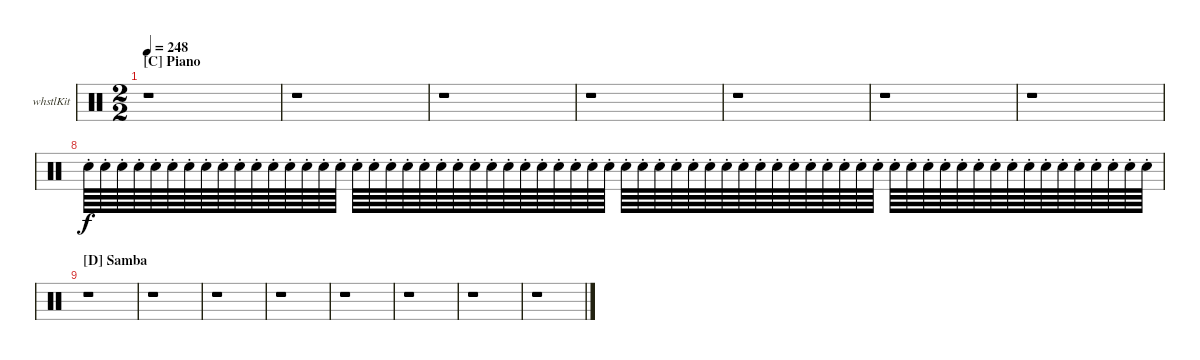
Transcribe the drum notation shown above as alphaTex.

\bracketExtendMode nobrackets
\firstSystemTrackNameOrientation horizontal
\otherSystemsTrackNameOrientation horizontal
\defaultBarNumberDisplay FirstOfSystem
\track ("Whistle" "whstlKit") {instrument percussion}
\staff {score}
\articulation defaults
\ts (2 2)
\beaming (8 2 2 2 2)
\section ("C" "Piano")
\tempo 248
\clef neutral
\ks c
r.1{dy f} |
r.1 |
r.1 |
r.1 |
r.1 |
r.1 |
r.1 |
"Snare (hit) 2"{st}.64 "Snare (hit) 2"{st}.64 "Snare (hit) 2"{st}.64 "Snare (hit) 2"{st}.64 "Snare (hit) 2"{st}.64 "Snare (hit) 2"{st}.64 "Snare (hit) 2"{st}.64 "Snare (hit) 2"{st}.64 "Snare (hit) 2"{st}.64 "Snare (hit) 2"{st}.64 "Snare (hit) 2"{st}.64 "Snare (hit) 2"{st}.64 "Snare (hit) 2"{st}.64 "Snare (hit) 2"{st}.64 "Snare (hit) 2"{st}.64 "Snare (hit) 2"{st}.64 "Snare (hit) 2"{st}.64 "Snare (hit) 2"{st}.64 "Snare (hit) 2"{st}.64 "Snare (hit) 2"{st}.64 "Snare (hit) 2"{st}.64 "Snare (hit) 2"{st}.64 "Snare (hit) 2"{st}.64 "Snare (hit) 2"{st}.64 "Snare (hit) 2"{st}.64 "Snare (hit) 2"{st}.64 "Snare (hit) 2"{st}.64 "Snare (hit) 2"{st}.64 "Snare (hit) 2"{st}.64 "Snare (hit) 2"{st}.64 "Snare (hit) 2"{st}.64 "Snare (hit) 2"{st}.64 "Snare (hit) 2"{st}.64 "Snare (hit) 2"{st}.64 "Snare (hit) 2"{st}.64 "Snare (hit) 2"{st}.64 "Snare (hit) 2"{st}.64 "Snare (hit) 2"{st}.64 "Snare (hit) 2"{st}.64 "Snare (hit) 2"{st}.64 "Snare (hit) 2"{st}.64 "Snare (hit) 2"{st}.64 "Snare (hit) 2"{st}.64 "Snare (hit) 2"{st}.64 "Snare (hit) 2"{st}.64 "Snare (hit) 2"{st}.64 "Snare (hit) 2"{st}.64 "Snare (hit) 2"{st}.64 "Snare (hit) 2"{st}.64 "Snare (hit) 2"{st}.64 "Snare (hit) 2"{st}.64 "Snare (hit) 2"{st}.64 "Snare (hit) 2"{st}.64 "Snare (hit) 2"{st}.64 "Snare (hit) 2"{st}.64 "Snare (hit) 2"{st}.64 "Snare (hit) 2"{st}.64 "Snare (hit) 2"{st}.64 "Snare (hit) 2"{st}.64 "Snare (hit) 2"{st}.64 "Snare (hit) 2"{st}.64 "Snare (hit) 2"{st}.64 "Snare (hit) 2"{st}.64 "Snare (hit) 2"{st}.64 |
\section ("D" "Samba")
r.1 |
r.1 |
r.1 |
r.1 |
r.1 |
r.1 |
r.1 |
r.1
